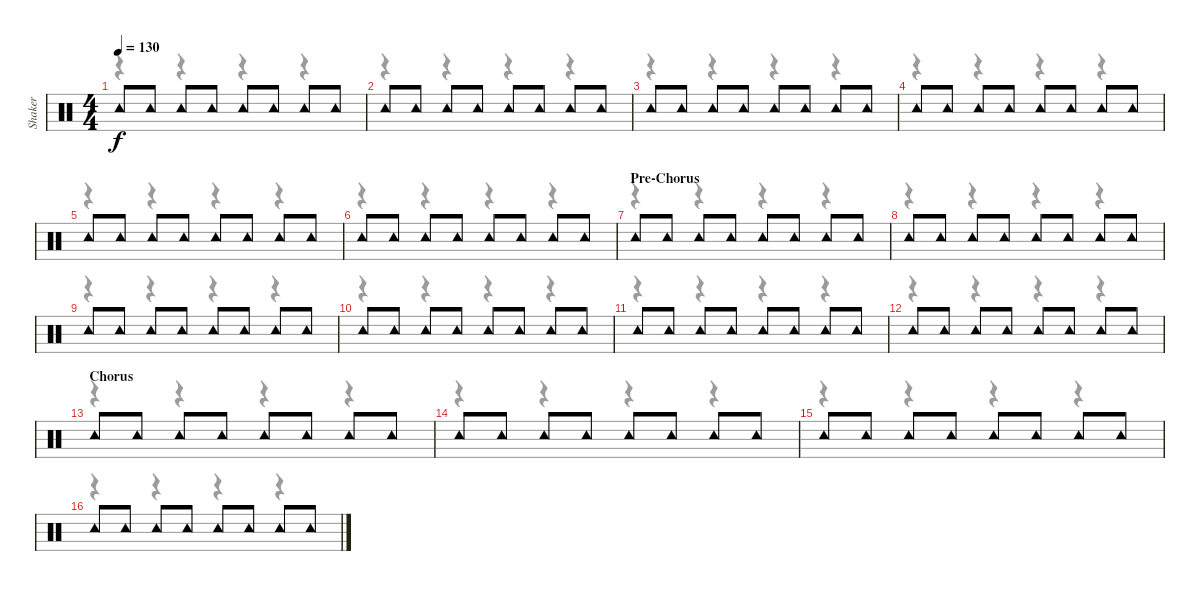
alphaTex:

\track ("Shaker" "Shaker") {instrument percussion}
\staff {score}
\articulation defaults
\voice
\ts (4 4)
\tempo 130
\clef neutral
\ks c "Tambourine (hit)".8{dy f} "Tambourine (hit)".8 "Tambourine (hit)".8 "Tambourine (hit)".8 "Tambourine (hit)".8 "Tambourine (hit)".8 "Tambourine (hit)".8 "Tambourine (hit)".8
|
"Tambourine (hit)".8 "Tambourine (hit)".8 "Tambourine (hit)".8 "Tambourine (hit)".8 "Tambourine (hit)".8 "Tambourine (hit)".8 "Tambourine (hit)".8 "Tambourine (hit)".8 |
"Tambourine (hit)".8 "Tambourine (hit)".8 "Tambourine (hit)".8 "Tambourine (hit)".8 "Tambourine (hit)".8 "Tambourine (hit)".8 "Tambourine (hit)".8 "Tambourine (hit)".8 |
"Tambourine (hit)".8 "Tambourine (hit)".8 "Tambourine (hit)".8 "Tambourine (hit)".8 "Tambourine (hit)".8 "Tambourine (hit)".8 "Tambourine (hit)".8 "Tambourine (hit)".8 |
"Tambourine (hit)".8 "Tambourine (hit)".8 "Tambourine (hit)".8 "Tambourine (hit)".8 "Tambourine (hit)".8 "Tambourine (hit)".8 "Tambourine (hit)".8 "Tambourine (hit)".8 |
"Tambourine (hit)".8 "Tambourine (hit)".8 "Tambourine (hit)".8 "Tambourine (hit)".8 "Tambourine (hit)".8 "Tambourine (hit)".8 "Tambourine (hit)".8 "Tambourine (hit)".8 |
\section ("" "Pre-Chorus")
"Tambourine (hit)".8 "Tambourine (hit)".8 "Tambourine (hit)".8 "Tambourine (hit)".8 "Tambourine (hit)".8 "Tambourine (hit)".8 "Tambourine (hit)".8 "Tambourine (hit)".8 |
"Tambourine (hit)".8 "Tambourine (hit)".8 "Tambourine (hit)".8 "Tambourine (hit)".8 "Tambourine (hit)".8 "Tambourine (hit)".8 "Tambourine (hit)".8 "Tambourine (hit)".8 |
"Tambourine (hit)".8 "Tambourine (hit)".8 "Tambourine (hit)".8 "Tambourine (hit)".8 "Tambourine (hit)".8 "Tambourine (hit)".8 "Tambourine (hit)".8 "Tambourine (hit)".8 |
"Tambourine (hit)".8 "Tambourine (hit)".8 "Tambourine (hit)".8 "Tambourine (hit)".8 "Tambourine (hit)".8 "Tambourine (hit)".8 "Tambourine (hit)".8 "Tambourine (hit)".8 |
"Tambourine (hit)".8 "Tambourine (hit)".8 "Tambourine (hit)".8 "Tambourine (hit)".8 "Tambourine (hit)".8 "Tambourine (hit)".8 "Tambourine (hit)".8 "Tambourine (hit)".8 |
"Tambourine (hit)".8 "Tambourine (hit)".8 "Tambourine (hit)".8 "Tambourine (hit)".8 "Tambourine (hit)".8 "Tambourine (hit)".8 "Tambourine (hit)".8 "Tambourine (hit)".8 |
\section ("" "Chorus")
"Tambourine (hit)".8 "Tambourine (hit)".8 "Tambourine (hit)".8 "Tambourine (hit)".8 "Tambourine (hit)".8 "Tambourine (hit)".8 "Tambourine (hit)".8 "Tambourine (hit)".8 |
"Tambourine (hit)".8 "Tambourine (hit)".8 "Tambourine (hit)".8 "Tambourine (hit)".8 "Tambourine (hit)".8 "Tambourine (hit)".8 "Tambourine (hit)".8 "Tambourine (hit)".8 |
"Tambourine (hit)".8 "Tambourine (hit)".8 "Tambourine (hit)".8 "Tambourine (hit)".8 "Tambourine (hit)".8 "Tambourine (hit)".8 "Tambourine (hit)".8 "Tambourine (hit)".8 |
"Tambourine (hit)".8 "Tambourine (hit)".8 "Tambourine (hit)".8 "Tambourine (hit)".8 "Tambourine (hit)".8 "Tambourine (hit)".8 "Tambourine (hit)".8 "Tambourine (hit)".8
\voice
\clef neutral
\ottava regular
\simile none
\ks c
r.4{dy f} r.4 r.4 r.4 |
r.4 r.4 r.4 r.4 |
r.4 r.4 r.4 r.4 |
r.4 r.4 r.4 r.4 |
r.4 r.4 r.4 r.4 |
r.4 r.4 r.4 r.4 |
r.4 r.4 r.4 r.4 |
r.4 r.4 r.4 r.4 |
r.4 r.4 r.4 r.4 |
r.4 r.4 r.4 r.4 |
r.4 r.4 r.4 r.4 |
r.4 r.4 r.4 r.4 |
r.4 r.4 r.4 r.4 |
r.4 r.4 r.4 r.4 |
r.4 r.4 r.4 r.4 |
r.4 r.4 r.4 r.4
